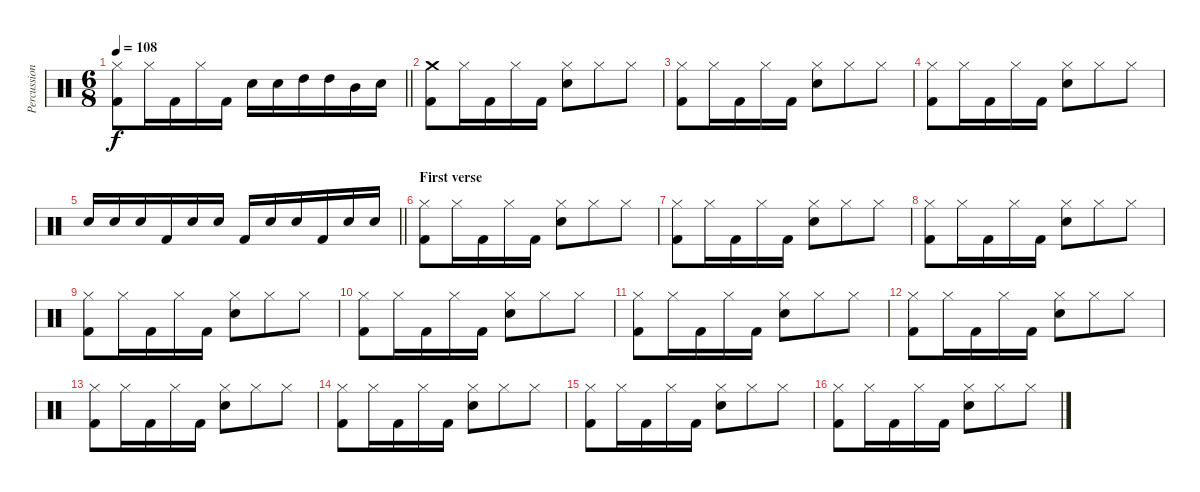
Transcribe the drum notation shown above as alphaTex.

\track ("Percussions" "Percussion") {instrument percussion}
\staff {score}
\articulation defaults
\ts (6 8)
\tempo 108
\clef neutral
\barLineRight lightlight
\ks c
("Hi-Hat (closed)" "Kick (hit) 2").8{dy f} "Hi-Hat (closed)".16 "Kick (hit) 2".16 "Hi-Hat (closed)".16 "Kick (hit) 2".16 "Electric Snare (hit)".16 "Electric Snare (hit)".16 "High Tom (hit)".16 "High Tom (hit)".16 "Mid Tom (hit)".16 "Electric Snare (hit)".16 |
("Crash medium (hit)" "Kick (hit) 2").8 "Hi-Hat (closed)".16 "Kick (hit) 2".16 "Hi-Hat (closed)".16 "Kick (hit) 2".16 ("Hi-Hat (closed)" "Electric Snare (hit)").8 "Hi-Hat (closed)".8 "Hi-Hat (closed)".8 |
("Hi-Hat (closed)" "Kick (hit) 2").8 "Hi-Hat (closed)".16 "Kick (hit) 2".16 "Hi-Hat (closed)".16 "Kick (hit) 2".16 ("Hi-Hat (closed)" "Electric Snare (hit)").8 "Hi-Hat (closed)".8 "Hi-Hat (closed)".8 |
("Hi-Hat (closed)" "Kick (hit) 2").8 "Hi-Hat (closed)".16 "Kick (hit) 2".16 "Hi-Hat (closed)".16 "Kick (hit) 2".16 ("Hi-Hat (closed)" "Electric Snare (hit)").8 "Hi-Hat (closed)".8 "Hi-Hat (closed)".8 |
\barLineRight lightlight "Electric Snare (hit)".16 "Electric Snare (hit)".16 "Electric Snare (hit)".16 "Kick (hit) 2".16 "Electric Snare (hit)".16 "Electric Snare (hit)".16 "Kick (hit) 2".16 "Electric Snare (hit)".16 "Electric Snare (hit)".16 "Kick (hit) 2".16 "Electric Snare (hit)".16 "Electric Snare (hit)".16
|
\section ("" "First verse")
("Hi-Hat (closed)" "Kick (hit) 2").8 "Hi-Hat (closed)".16 "Kick (hit) 2".16 "Hi-Hat (closed)".16 "Kick (hit) 2".16 ("Hi-Hat (closed)" "Electric Snare (hit)").8 "Hi-Hat (closed)".8 "Hi-Hat (closed)".8 |
("Hi-Hat (closed)" "Kick (hit) 2").8 "Hi-Hat (closed)".16 "Kick (hit) 2".16 "Hi-Hat (closed)".16 "Kick (hit) 2".16 ("Hi-Hat (closed)" "Electric Snare (hit)").8 "Hi-Hat (closed)".8 "Hi-Hat (closed)".8 |
("Hi-Hat (closed)" "Kick (hit) 2").8 "Hi-Hat (closed)".16 "Kick (hit) 2".16 "Hi-Hat (closed)".16 "Kick (hit) 2".16 ("Hi-Hat (closed)" "Electric Snare (hit)").8 "Hi-Hat (closed)".8 "Hi-Hat (closed)".8 |
("Hi-Hat (closed)" "Kick (hit) 2").8 "Hi-Hat (closed)".16 "Kick (hit) 2".16 "Hi-Hat (closed)".16 "Kick (hit) 2".16 ("Hi-Hat (closed)" "Electric Snare (hit)").8 "Hi-Hat (closed)".8 "Hi-Hat (closed)".8 |
("Hi-Hat (closed)" "Kick (hit) 2").8 "Hi-Hat (closed)".16 "Kick (hit) 2".16 "Hi-Hat (closed)".16 "Kick (hit) 2".16 ("Hi-Hat (closed)" "Electric Snare (hit)").8 "Hi-Hat (closed)".8 "Hi-Hat (closed)".8 |
("Hi-Hat (closed)" "Kick (hit) 2").8 "Hi-Hat (closed)".16 "Kick (hit) 2".16 "Hi-Hat (closed)".16 "Kick (hit) 2".16 ("Hi-Hat (closed)" "Electric Snare (hit)").8 "Hi-Hat (closed)".8 "Hi-Hat (closed)".8 |
("Hi-Hat (closed)" "Kick (hit) 2").8 "Hi-Hat (closed)".16 "Kick (hit) 2".16 "Hi-Hat (closed)".16 "Kick (hit) 2".16 ("Hi-Hat (closed)" "Electric Snare (hit)").8 "Hi-Hat (closed)".8 "Hi-Hat (closed)".8 |
("Hi-Hat (closed)" "Kick (hit) 2").8 "Hi-Hat (closed)".16 "Kick (hit) 2".16 "Hi-Hat (closed)".16 "Kick (hit) 2".16 ("Hi-Hat (closed)" "Electric Snare (hit)").8 "Hi-Hat (closed)".8 "Hi-Hat (closed)".8 |
("Hi-Hat (closed)" "Kick (hit) 2").8 "Hi-Hat (closed)".16 "Kick (hit) 2".16 "Hi-Hat (closed)".16 "Kick (hit) 2".16 ("Hi-Hat (closed)" "Electric Snare (hit)").8 "Hi-Hat (closed)".8 "Hi-Hat (closed)".8 |
("Hi-Hat (closed)" "Kick (hit) 2").8 "Hi-Hat (closed)".16 "Kick (hit) 2".16 "Hi-Hat (closed)".16 "Kick (hit) 2".16 ("Hi-Hat (closed)" "Electric Snare (hit)").8 "Hi-Hat (closed)".8 "Hi-Hat (closed)".8 |
("Hi-Hat (closed)" "Kick (hit) 2").8 "Hi-Hat (closed)".16 "Kick (hit) 2".16 "Hi-Hat (closed)".16 "Kick (hit) 2".16 ("Hi-Hat (closed)" "Electric Snare (hit)").8 "Hi-Hat (closed)".8 "Hi-Hat (closed)".8
